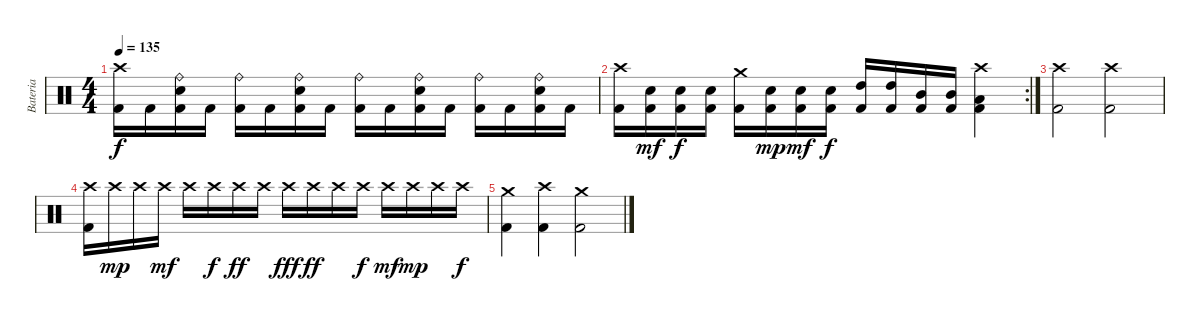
\track ("Bateria" "Bateria") {instrument percussion}
\staff {score}
\articulation defaults
\ts (4 4)
\tempo 135
\clef neutral
\ks c
("Crash high (hit)" "Kick (hit) 2").16{dy f} "Kick (hit) 2".16 ("Ride (bell)" "Electric Snare (hit)" "Kick (hit) 2").16 "Kick (hit) 2".16 ("Ride (bell)" "Kick (hit) 2").16 "Kick (hit) 2".16 ("Ride (bell)" "Electric Snare (hit)" "Kick (hit) 2").16 "Kick (hit) 2".16 ("Ride (bell)" "Kick (hit) 2").16 "Kick (hit) 2".16 ("Ride (bell)" "Electric Snare (hit)" "Kick (hit) 2").16 "Kick (hit) 2".16 ("Ride (bell)" "Kick (hit) 2").16 "Kick (hit) 2".16 ("Ride (bell)" "Electric Snare (hit)" "Kick (hit) 2").16 "Kick (hit) 2".16 |
\rc 2
("Crash high (hit)" "Kick (hit) 2").16 ("Electric Snare (hit)" "Kick (hit) 2").16{dy mf} ("Electric Snare (hit)" "Kick (hit) 2").16{dy f} ("Electric Snare (hit)" "Kick (hit) 2").16 ("Crash medium (hit)" "Kick (hit) 2").16 ("Electric Snare (hit)" "Kick (hit) 2").16{dy mp} ("Electric Snare (hit)" "Kick (hit) 2").16{dy mf} ("Electric Snare (hit)" "Kick (hit) 2").16{dy f} ("High Tom (hit)" "Kick (hit) 2").16 ("High Tom (hit)" "Kick (hit) 2").16 ("Mid Tom (hit)" "Kick (hit) 2").16 ("Mid Tom (hit)" "Kick (hit) 2").16 ("Crash high (hit)" "Low Tom (hit)" "Kick (hit) 2").4 |
("Crash high (hit)" "Kick (hit) 2").2 ("Crash high (hit)" "Kick (hit) 2").2 |
("Crash high (hit)" "Kick (hit) 2").16 "Crash high (hit)".16{dy mp} "Crash high (hit)".16 "Crash high (hit)".16{dy mf} "Crash high (hit)".16 "Crash high (hit)".16{dy f} "Crash high (hit)".16{dy ff} "Crash high (hit)".16 "Crash high (hit)".16{dy fff} "Crash high (hit)".16{dy ff} "Crash high (hit)".16 "Crash high (hit)".16{dy f} "Crash high (hit)".16{dy mf} "Crash high (hit)".16{dy mp} "Crash high (hit)".16 "Crash high (hit)".16{dy f} |
("Crash medium (hit)" "Kick (hit) 2").4 ("Crash high (hit)" "Kick (hit) 2").4 ("Crash medium (hit)" "Kick (hit) 2").2
